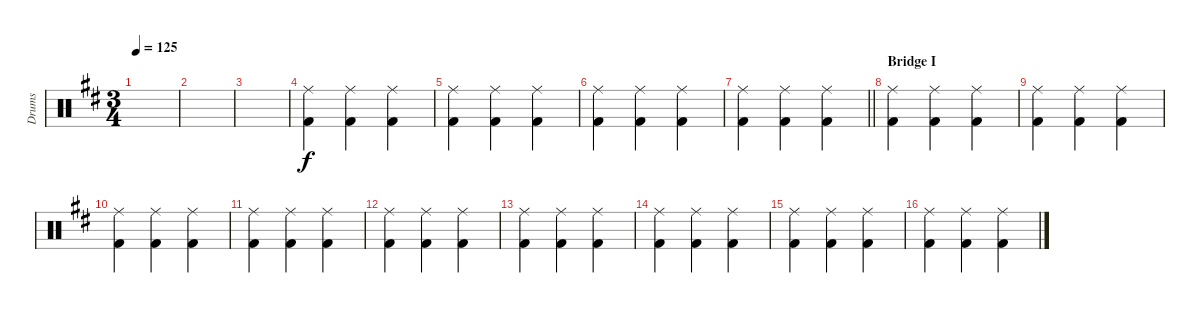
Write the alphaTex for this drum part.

\track ("Drums" "Drums") {instrument percussion}
\staff {score}
\articulation defaults
\ts (3 4)
\tempo 125
\clef neutral
\ks d
|
|
|
("Ride (middle)" "Kick (hit) 2").4 ("Ride (middle)" "Kick (hit) 2").4 ("Ride (middle)" "Kick (hit) 2").4 |
("Ride (middle)" "Kick (hit) 2").4 ("Ride (middle)" "Kick (hit) 2").4 ("Ride (middle)" "Kick (hit) 2").4 |
("Ride (middle)" "Kick (hit) 2").4 ("Ride (middle)" "Kick (hit) 2").4 ("Ride (middle)" "Kick (hit) 2").4 |
\barLineRight lightlight
("Ride (middle)" "Kick (hit) 2").4 ("Ride (middle)" "Kick (hit) 2").4 ("Ride (middle)" "Kick (hit) 2").4 |
\section ("" "Bridge I")
("Ride (middle)" "Kick (hit) 2").4 ("Ride (middle)" "Kick (hit) 2").4 ("Ride (middle)" "Kick (hit) 2").4 |
("Ride (middle)" "Kick (hit) 2").4 ("Ride (middle)" "Kick (hit) 2").4 ("Ride (middle)" "Kick (hit) 2").4 |
("Ride (middle)" "Kick (hit) 2").4 ("Ride (middle)" "Kick (hit) 2").4 ("Ride (middle)" "Kick (hit) 2").4 |
("Ride (middle)" "Kick (hit) 2").4 ("Ride (middle)" "Kick (hit) 2").4 ("Ride (middle)" "Kick (hit) 2").4 |
("Ride (middle)" "Kick (hit) 2").4 ("Ride (middle)" "Kick (hit) 2").4 ("Ride (middle)" "Kick (hit) 2").4 |
("Ride (middle)" "Kick (hit) 2").4 ("Ride (middle)" "Kick (hit) 2").4 ("Ride (middle)" "Kick (hit) 2").4 |
("Ride (middle)" "Kick (hit) 2").4 ("Ride (middle)" "Kick (hit) 2").4 ("Ride (middle)" "Kick (hit) 2").4 |
("Ride (middle)" "Kick (hit) 2").4 ("Ride (middle)" "Kick (hit) 2").4 ("Ride (middle)" "Kick (hit) 2").4 |
("Ride (middle)" "Kick (hit) 2").4 ("Ride (middle)" "Kick (hit) 2").4 ("Ride (middle)" "Kick (hit) 2").4
